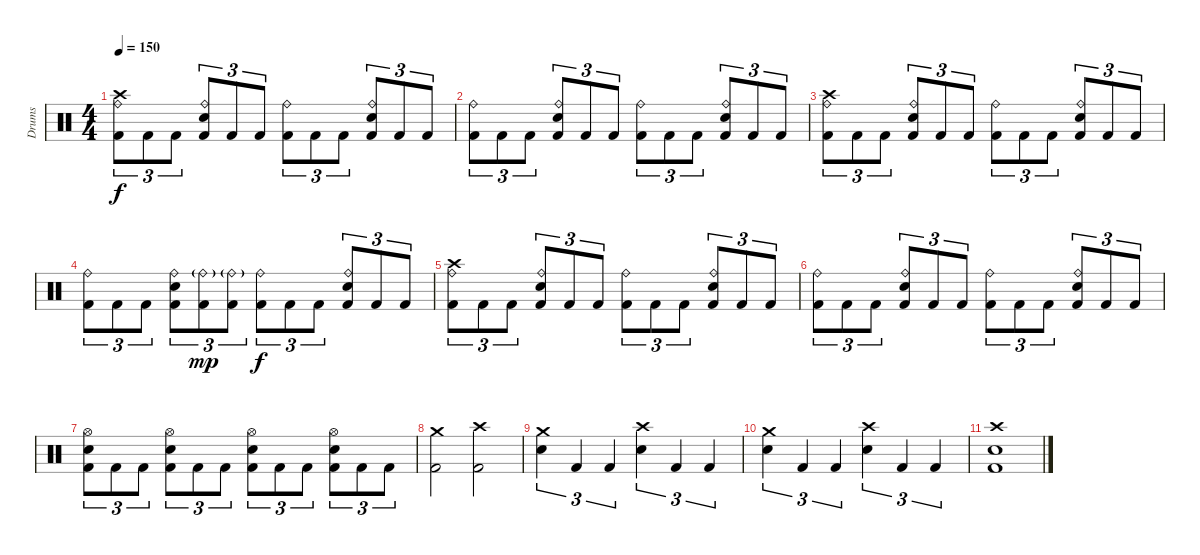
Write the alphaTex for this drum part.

\track ("Drums" "Drums") {instrument percussion}
\staff {score}
\articulation defaults
\ts (4 4)
\tempo 150
\clef neutral
\ks c
("Kick (hit) 2" "Crash high (hit)" "Ride (bell)").8{tu (3 2) dy f} "Kick (hit) 2".8{tu (3 2)} "Kick (hit) 2".8{tu (3 2)} ("Kick (hit) 2" "Electric Snare (hit)" "Ride (bell)").8{tu (3 2)} "Kick (hit) 2".8{tu (3 2)} "Kick (hit) 2".8{tu (3 2)} ("Kick (hit) 2" "Ride (bell)").8{tu (3 2)} "Kick (hit) 2".8{tu (3 2)} "Kick (hit) 2".8{tu (3 2)} ("Kick (hit) 2" "Electric Snare (hit)" "Ride (bell)").8{tu (3 2)} "Kick (hit) 2".8{tu (3 2)} "Kick (hit) 2".8{tu (3 2)} |
("Kick (hit) 2" "Ride (bell)").8{tu (3 2)} "Kick (hit) 2".8{tu (3 2)} "Kick (hit) 2".8{tu (3 2)} ("Kick (hit) 2" "Electric Snare (hit)" "Ride (bell)").8{tu (3 2)} "Kick (hit) 2".8{tu (3 2)} "Kick (hit) 2".8{tu (3 2)} ("Kick (hit) 2" "Ride (bell)").8{tu (3 2)} "Kick (hit) 2".8{tu (3 2)} "Kick (hit) 2".8{tu (3 2)} ("Kick (hit) 2" "Electric Snare (hit)" "Ride (bell)").8{tu (3 2)} "Kick (hit) 2".8{tu (3 2)} "Kick (hit) 2".8{tu (3 2)} |
("Kick (hit) 2" "Crash high (hit)" "Ride (bell)").8{tu (3 2)} "Kick (hit) 2".8{tu (3 2)} "Kick (hit) 2".8{tu (3 2)} ("Kick (hit) 2" "Electric Snare (hit)" "Ride (bell)").8{tu (3 2)} "Kick (hit) 2".8{tu (3 2)} "Kick (hit) 2".8{tu (3 2)} ("Kick (hit) 2" "Ride (bell)").8{tu (3 2)} "Kick (hit) 2".8{tu (3 2)} "Kick (hit) 2".8{tu (3 2)} ("Kick (hit) 2" "Electric Snare (hit)" "Ride (bell)").8{tu (3 2)} "Kick (hit) 2".8{tu (3 2)} "Kick (hit) 2".8{tu (3 2)} |
("Kick (hit) 2" "Ride (bell)").8{tu (3 2)} "Kick (hit) 2".8{tu (3 2)} "Kick (hit) 2".8{tu (3 2)} ("Kick (hit) 2" "Electric Snare (hit)" "Ride (bell)").8{tu (3 2)} ("Kick (hit) 2" "Ride (bell)"{g}).8{tu (3 2) dy mp} ("Kick (hit) 2" "Ride (bell)"{g}).8{tu (3 2)} ("Kick (hit) 2" "Ride (bell)").8{tu (3 2) dy f} "Kick (hit) 2".8{tu (3 2)} "Kick (hit) 2".8{tu (3 2)} ("Kick (hit) 2" "Electric Snare (hit)" "Ride (bell)").8{tu (3 2)} "Kick (hit) 2".8{tu (3 2)} "Kick (hit) 2".8{tu (3 2)} |
("Kick (hit) 2" "Crash high (hit)" "Ride (bell)").8{tu (3 2)} "Kick (hit) 2".8{tu (3 2)} "Kick (hit) 2".8{tu (3 2)} ("Kick (hit) 2" "Electric Snare (hit)" "Ride (bell)").8{tu (3 2)} "Kick (hit) 2".8{tu (3 2)} "Kick (hit) 2".8{tu (3 2)} ("Kick (hit) 2" "Ride (bell)").8{tu (3 2)} "Kick (hit) 2".8{tu (3 2)} "Kick (hit) 2".8{tu (3 2)} ("Kick (hit) 2" "Electric Snare (hit)" "Ride (bell)").8{tu (3 2)} "Kick (hit) 2".8{tu (3 2)} "Kick (hit) 2".8{tu (3 2)} |
("Kick (hit) 2" "Ride (bell)").8{tu (3 2)} "Kick (hit) 2".8{tu (3 2)} "Kick (hit) 2".8{tu (3 2)} ("Kick (hit) 2" "Electric Snare (hit)" "Ride (bell)").8{tu (3 2)} "Kick (hit) 2".8{tu (3 2)} "Kick (hit) 2".8{tu (3 2)} ("Kick (hit) 2" "Ride (bell)").8{tu (3 2)} "Kick (hit) 2".8{tu (3 2)} "Kick (hit) 2".8{tu (3 2)} ("Kick (hit) 2" "Electric Snare (hit)" "Ride (bell)").8{tu (3 2)} "Kick (hit) 2".8{tu (3 2)} "Kick (hit) 2".8{tu (3 2)} |
("Kick (hit) 2" "Electric Snare (hit)" "Hi-Hat (open)").8{tu (3 2)} "Kick (hit) 2".8{tu (3 2)} "Kick (hit) 2".8{tu (3 2)} ("Kick (hit) 2" "Electric Snare (hit)" "Hi-Hat (open)").8{tu (3 2)} "Kick (hit) 2".8{tu (3 2)} "Kick (hit) 2".8{tu (3 2)} ("Kick (hit) 2" "Electric Snare (hit)" "Hi-Hat (open)").8{tu (3 2)} "Kick (hit) 2".8{tu (3 2)} "Kick (hit) 2".8{tu (3 2)} ("Kick (hit) 2" "Electric Snare (hit)" "Hi-Hat (open)").8{tu (3 2)} "Kick (hit) 2".8{tu (3 2)} "Kick (hit) 2".8{tu (3 2)} |
("Kick (hit) 2" "Crash medium (hit)").2 ("Kick (hit) 2" "Crash high (hit)").2 |
("Electric Snare (hit)" "Crash medium (hit)").4{tu (3 2)} "Kick (hit) 2".4{tu (3 2)} "Kick (hit) 2".4{tu (3 2)} ("Electric Snare (hit)" "Crash high (hit)").4{tu (3 2)} "Kick (hit) 2".4{tu (3 2)} "Kick (hit) 2".4{tu (3 2)} |
("Electric Snare (hit)" "Crash medium (hit)").4{tu (3 2)} "Kick (hit) 2".4{tu (3 2)} "Kick (hit) 2".4{tu (3 2)} ("Electric Snare (hit)" "Crash high (hit)").4{tu (3 2)} "Kick (hit) 2".4{tu (3 2)} "Kick (hit) 2".4{tu (3 2)} |
("Electric Snare (hit)" "Crash high (hit)" "Kick (hit) 2").1
